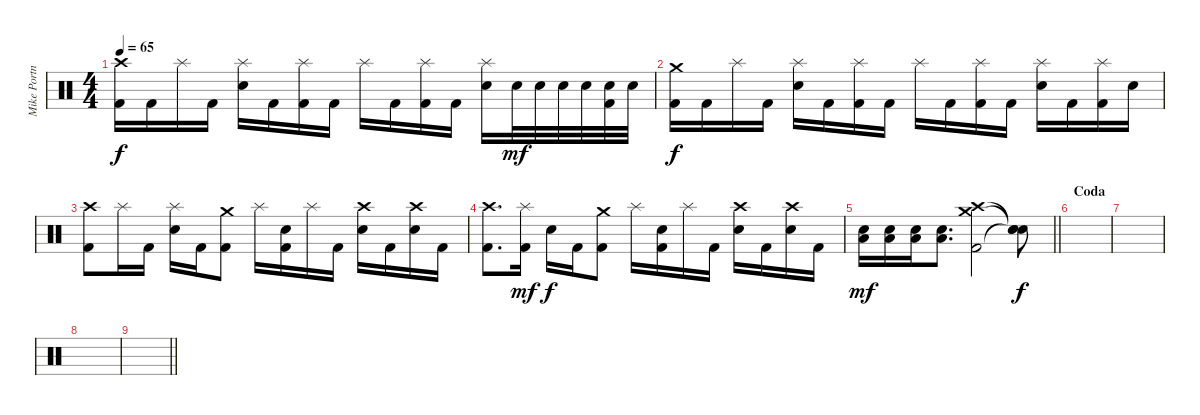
\track ("Mike Portnoy [Drums]" "Mike Portn") {instrument percussion}
\staff {score}
\articulation defaults
\ts (4 4)
\tempo 65
\clef neutral
\ks c
("Crash high (hit)" "Kick (hit) 2").16{dy f} "Kick (hit) 2".16 "Splash (hit)".16 "Kick (hit) 2".16 ("Splash (hit)" "Electric Snare (hit)").16 "Kick (hit) 2".16 ("Splash (hit)" "Kick (hit) 2").16 "Kick (hit) 2".16 "Splash (hit)".16 "Kick (hit) 2".16 ("Splash (hit)" "Kick (hit) 2").16 "Kick (hit) 2".16 ("Splash (hit)" "Electric Snare (hit)").16 "Electric Snare (hit)".32{dy mf} "Electric Snare (hit)".32 "Electric Snare (hit)".32 "Electric Snare (hit)".32 ("Electric Snare (hit)" "Kick (hit) 2").32 "Electric Snare (hit)".32 |
("Crash medium (hit)" "Kick (hit) 2").16{dy f} "Kick (hit) 2".16 "Splash (hit)".16 "Kick (hit) 2".16 ("Splash (hit)" "Electric Snare (hit)").16 "Kick (hit) 2".16 ("Splash (hit)" "Kick (hit) 2").16 "Kick (hit) 2".16 "Splash (hit)".16 "Kick (hit) 2".16 ("Splash (hit)" "Kick (hit) 2").16 "Kick (hit) 2".16 ("Splash (hit)" "Electric Snare (hit)").16 "Kick (hit) 2".16 ("Splash (hit)" "Kick (hit) 2").16 "Electric Snare (hit)".16 |
("Crash high (hit)" "Kick (hit) 2").8 "Splash (hit)".16 "Kick (hit) 2".16 ("Splash (hit)" "Electric Snare (hit)").16 "Kick (hit) 2".16 ("Crash medium (hit)" "Kick (hit) 2").8 "Splash (hit)".16 ("Electric Snare (hit)" "Kick (hit) 2").16 "Splash (hit)".16 "Kick (hit) 2".16 ("Crash high (hit)" "Electric Snare (hit)").16 "Kick (hit) 2".16 ("Crash high (hit)" "Electric Snare (hit)").16 "Kick (hit) 2".16 |
("Crash high (hit)" "Kick (hit) 2").8{d} ("Splash (hit)" "Kick (hit) 2").16{dy mf} "Electric Snare (hit)".16{dy f} "Kick (hit) 2".16 ("Crash medium (hit)" "Kick (hit) 2").8 "Splash (hit)".16 ("Electric Snare (hit)" "Kick (hit) 2").16 "Splash (hit)".16 "Kick (hit) 2".16 ("Crash high (hit)" "Electric Snare (hit)").16 "Kick (hit) 2".16 ("Crash high (hit)" "Electric Snare (hit)").16 "Kick (hit) 2".16 |
\barLineRight lightlight
("Low Floor Tom (hit)" "Electric Snare (hit)").16{dy mf} ("Low Floor Tom (hit)" "Electric Snare (hit)").16 ("Low Floor Tom (hit)" "Electric Snare (hit)").16 ("Low Floor Tom (hit)" "Electric Snare (hit)").8{d} ("Crash high (hit)" "Crash medium (hit)" "Kick (hit) 2").2 ("Snare (hit)"{t} "Snare (hit)"{t} "Snare (hit)"{t}).8{dy f} |
\section ("" "Coda")
|
|
|
\barLineRight lightlight
